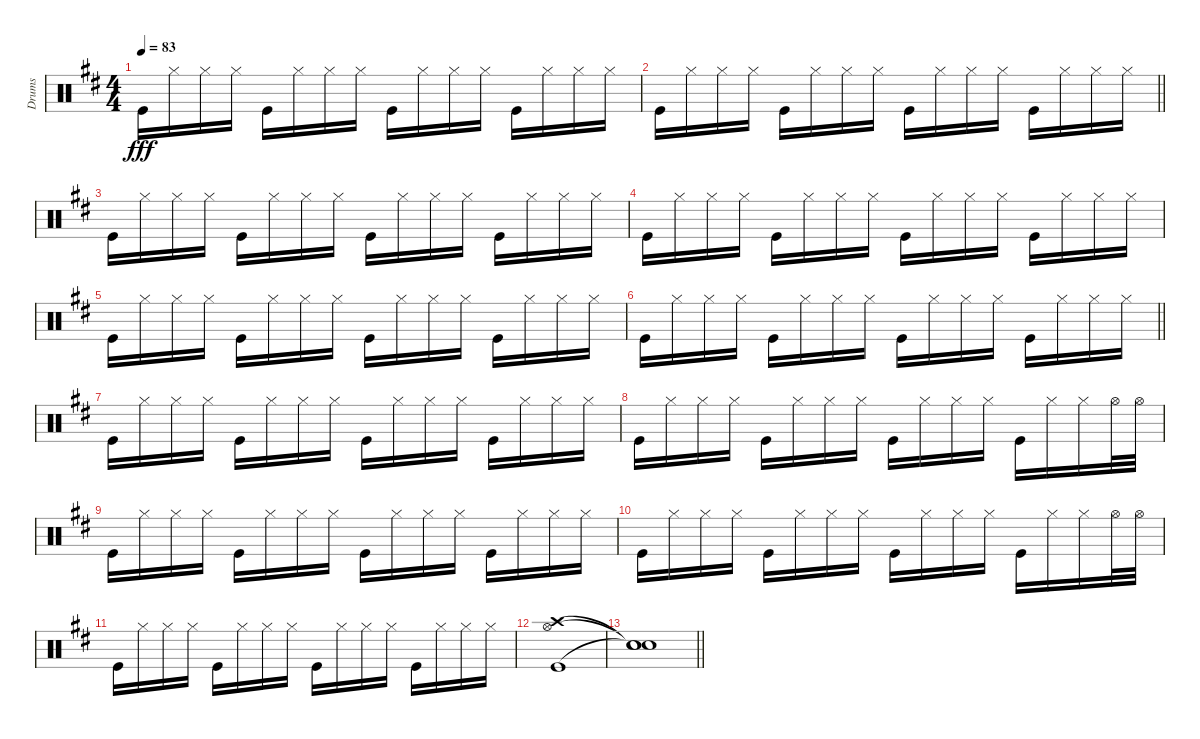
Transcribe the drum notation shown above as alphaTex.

\track ("Drums" "Drums") {instrument percussion}
\staff {score}
\articulation defaults
\ts (4 4)
\tempo 83
\clef neutral
\ks d "Kick (hit)".16{dy fff} "Hi-Hat (closed)".16 "Hi-Hat (closed)".16 "Hi-Hat (closed)".16 "Kick (hit)".16 "Hi-Hat (closed)".16 "Hi-Hat (closed)".16 "Hi-Hat (closed)".16 "Kick (hit)".16 "Hi-Hat (closed)".16 "Hi-Hat (closed)".16 "Hi-Hat (closed)".16 "Kick (hit)".16 "Hi-Hat (closed)".16 "Hi-Hat (closed)".16 "Hi-Hat (closed)".16
|
\barLineRight lightlight "Kick (hit)".16 "Hi-Hat (closed)".16 "Hi-Hat (closed)".16 "Hi-Hat (closed)".16 "Kick (hit)".16 "Hi-Hat (closed)".16 "Hi-Hat (closed)".16 "Hi-Hat (closed)".16 "Kick (hit)".16 "Hi-Hat (closed)".16 "Hi-Hat (closed)".16 "Hi-Hat (closed)".16 "Kick (hit)".16 "Hi-Hat (closed)".16 "Hi-Hat (closed)".16 "Hi-Hat (closed)".16
|
"Kick (hit)".16 "Hi-Hat (closed)".16 "Hi-Hat (closed)".16 "Hi-Hat (closed)".16 "Kick (hit)".16 "Hi-Hat (closed)".16 "Hi-Hat (closed)".16 "Hi-Hat (closed)".16 "Kick (hit)".16 "Hi-Hat (closed)".16 "Hi-Hat (closed)".16 "Hi-Hat (closed)".16 "Kick (hit)".16 "Hi-Hat (closed)".16 "Hi-Hat (closed)".16 "Hi-Hat (closed)".16 |
"Kick (hit)".16 "Hi-Hat (closed)".16 "Hi-Hat (closed)".16 "Hi-Hat (closed)".16 "Kick (hit)".16 "Hi-Hat (closed)".16 "Hi-Hat (closed)".16 "Hi-Hat (closed)".16 "Kick (hit)".16 "Hi-Hat (closed)".16 "Hi-Hat (closed)".16 "Hi-Hat (closed)".16 "Kick (hit)".16 "Hi-Hat (closed)".16 "Hi-Hat (closed)".16 "Hi-Hat (closed)".16 |
"Kick (hit)".16 "Hi-Hat (closed)".16 "Hi-Hat (closed)".16 "Hi-Hat (closed)".16 "Kick (hit)".16 "Hi-Hat (closed)".16 "Hi-Hat (closed)".16 "Hi-Hat (closed)".16 "Kick (hit)".16 "Hi-Hat (closed)".16 "Hi-Hat (closed)".16 "Hi-Hat (closed)".16 "Kick (hit)".16 "Hi-Hat (closed)".16 "Hi-Hat (closed)".16 "Hi-Hat (closed)".16 |
\barLineRight lightlight "Kick (hit)".16 "Hi-Hat (closed)".16 "Hi-Hat (closed)".16 "Hi-Hat (closed)".16 "Kick (hit)".16 "Hi-Hat (closed)".16 "Hi-Hat (closed)".16 "Hi-Hat (closed)".16 "Kick (hit)".16 "Hi-Hat (closed)".16 "Hi-Hat (closed)".16 "Hi-Hat (closed)".16 "Kick (hit)".16 "Hi-Hat (closed)".16 "Hi-Hat (closed)".16 "Hi-Hat (closed)".16
|
"Kick (hit)".16 "Hi-Hat (closed)".16 "Hi-Hat (closed)".16 "Hi-Hat (closed)".16 "Kick (hit)".16 "Hi-Hat (closed)".16 "Hi-Hat (closed)".16 "Hi-Hat (closed)".16 "Kick (hit)".16 "Hi-Hat (closed)".16 "Hi-Hat (closed)".16 "Hi-Hat (closed)".16 "Kick (hit)".16 "Hi-Hat (closed)".16 "Hi-Hat (closed)".16 "Hi-Hat (closed)".16 |
"Kick (hit)".16 "Hi-Hat (closed)".16 "Hi-Hat (closed)".16 "Hi-Hat (closed)".16 "Kick (hit)".16 "Hi-Hat (closed)".16 "Hi-Hat (closed)".16 "Hi-Hat (closed)".16 "Kick (hit)".16 "Hi-Hat (closed)".16 "Hi-Hat (closed)".16 "Hi-Hat (closed)".16 "Kick (hit)".16 "Hi-Hat (closed)".16 "Hi-Hat (closed)".16 "Hi-Hat (open)".32 "Hi-Hat (open)".32 |
"Kick (hit)".16 "Hi-Hat (closed)".16 "Hi-Hat (closed)".16 "Hi-Hat (closed)".16 "Kick (hit)".16 "Hi-Hat (closed)".16 "Hi-Hat (closed)".16 "Hi-Hat (closed)".16 "Kick (hit)".16 "Hi-Hat (closed)".16 "Hi-Hat (closed)".16 "Hi-Hat (closed)".16 "Kick (hit)".16 "Hi-Hat (closed)".16 "Hi-Hat (closed)".16 "Hi-Hat (closed)".16 |
"Kick (hit)".16 "Hi-Hat (closed)".16 "Hi-Hat (closed)".16 "Hi-Hat (closed)".16 "Kick (hit)".16 "Hi-Hat (closed)".16 "Hi-Hat (closed)".16 "Hi-Hat (closed)".16 "Kick (hit)".16 "Hi-Hat (closed)".16 "Hi-Hat (closed)".16 "Hi-Hat (closed)".16 "Kick (hit)".16 "Hi-Hat (closed)".16 "Hi-Hat (closed)".16 "Hi-Hat (open)".32 "Hi-Hat (open)".32 |
"Kick (hit)".16 "Hi-Hat (closed)".16 "Hi-Hat (closed)".16 "Hi-Hat (closed)".16 "Kick (hit)".16 "Hi-Hat (closed)".16 "Hi-Hat (closed)".16 "Hi-Hat (closed)".16 "Kick (hit)".16 "Hi-Hat (closed)".16 "Hi-Hat (closed)".16 "Hi-Hat (closed)".16 "Kick (hit)".16 "Hi-Hat (closed)".16 "Hi-Hat (closed)".16 "Hi-Hat (closed)".16 |
("Crash high (hit)" "Hi-Hat (open)" "Kick (hit)").1 |
\barLineRight lightlight
("Snare (hit)"{t} "Snare (hit)"{t} "Snare (hit)"{t}).1
